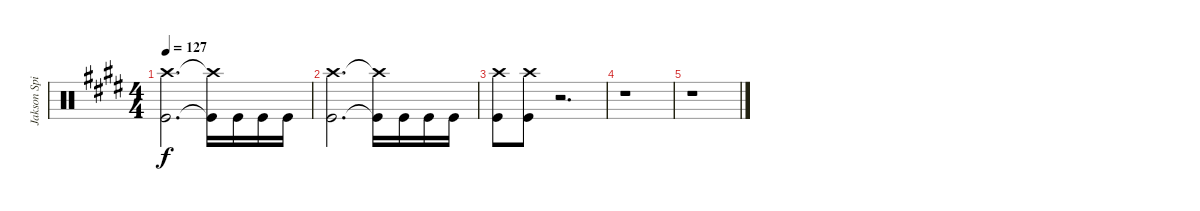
\track ("Jakson Spiers Drums" "Jakson Spi") {instrument percussion}
\staff {score}
\articulation defaults
\ts (4 4)
\tempo 127
\clef neutral
\ks e
("Crash high (hit)" "Kick (hit)").2{d dy f} ("Crash high (hit)"{t} "Kick (hit)"{t}).16 "Kick (hit)".16 "Kick (hit)".16 "Kick (hit)".16 |
("Crash high (hit)" "Kick (hit)").2{d} ("Crash high (hit)"{t} "Kick (hit)"{t}).16 "Kick (hit)".16 "Kick (hit)".16 "Kick (hit)".16 |
("Crash high (hit)" "Kick (hit)").8 ("Crash high (hit)" "Kick (hit)").8 r.2{d} |
r.1 |
r.1
